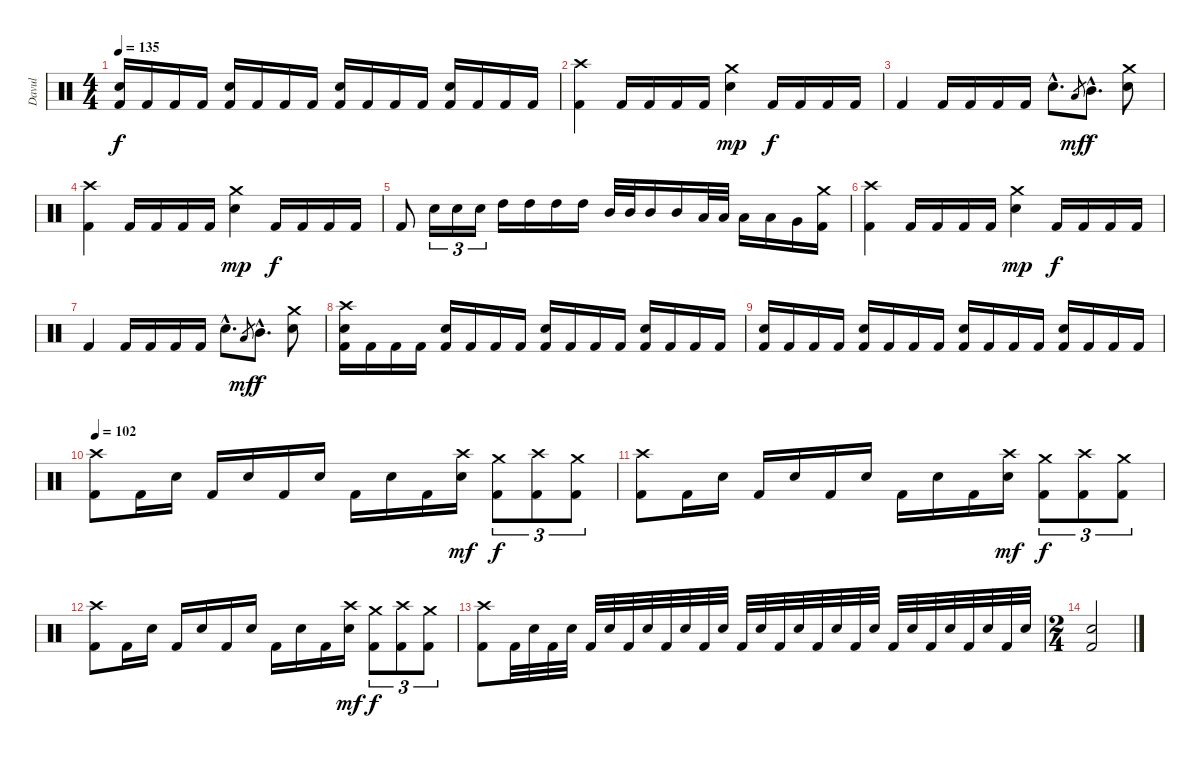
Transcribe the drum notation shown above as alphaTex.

\track ("Davul" "Davul") {instrument percussion}
\staff {score}
\articulation defaults
\ts (4 4)
\tempo 135
\clef neutral
\ks c
("Electric Snare (hit)" "Kick (hit) 2").16{dy f} "Kick (hit) 2".16 "Kick (hit) 2".16 "Kick (hit) 2".16 ("Electric Snare (hit)" "Kick (hit) 2").16 "Kick (hit) 2".16 "Kick (hit) 2".16 "Kick (hit) 2".16 ("Electric Snare (hit)" "Kick (hit) 2").16 "Kick (hit) 2".16 "Kick (hit) 2".16 "Kick (hit) 2".16 ("Electric Snare (hit)" "Kick (hit) 2").16 "Kick (hit) 2".16 "Kick (hit) 2".16 "Kick (hit) 2".16 |
("Crash high (hit)" "Kick (hit) 2").4 "Kick (hit) 2".16 "Kick (hit) 2".16 "Kick (hit) 2".16 "Kick (hit) 2".16 ("Crash medium (hit)" "Electric Snare (hit)").4{dy mp} "Kick (hit) 2".16{dy f} "Kick (hit) 2".16 "Kick (hit) 2".16 "Kick (hit) 2".16 |
"Kick (hit) 2".4 "Kick (hit) 2".16 "Kick (hit) 2".16 "Kick (hit) 2".16 "Kick (hit) 2".16 "Electric Snare (hit)"{hac}.8{d} "Low Tom (hit)".8{gr dy mf} "Mid Tom (hit)"{hac}.8{d dy f} ("Crash medium (hit)" "Electric Snare (hit)").8 |
("Crash high (hit)" "Kick (hit) 2").4 "Kick (hit) 2".16 "Kick (hit) 2".16 "Kick (hit) 2".16 "Kick (hit) 2".16 ("Crash medium (hit)" "Electric Snare (hit)").4{dy mp} "Kick (hit) 2".16{dy f} "Kick (hit) 2".16 "Kick (hit) 2".16 "Kick (hit) 2".16 |
"Kick (hit) 2".8 "Electric Snare (hit)".16{tu (3 2)} "Electric Snare (hit)".16{tu (3 2)} "Electric Snare (hit)".16{tu (3 2)} "High Tom (hit)".16 "High Tom (hit)".16 "High Tom (hit)".16 "High Tom (hit)".16 "Mid Tom (hit)".32 "Mid Tom (hit)".32 "Mid Tom (hit)".16 "Mid Tom (hit)".16 "Low Tom (hit)".32 "Low Tom (hit)".32 "Low Tom (hit)".16 "Low Tom (hit)".16 "Very Low Tom (hit)".16 ("Crash medium (hit)" "Kick (hit) 2").16 |
("Crash high (hit)" "Kick (hit) 2").4 "Kick (hit) 2".16 "Kick (hit) 2".16 "Kick (hit) 2".16 "Kick (hit) 2".16 ("Crash medium (hit)" "Electric Snare (hit)").4{dy mp} "Kick (hit) 2".16{dy f} "Kick (hit) 2".16 "Kick (hit) 2".16 "Kick (hit) 2".16 |
"Kick (hit) 2".4 "Kick (hit) 2".16 "Kick (hit) 2".16 "Kick (hit) 2".16 "Kick (hit) 2".16 "Electric Snare (hit)"{hac}.8{d} "Low Tom (hit)".8{gr dy mf} "Mid Tom (hit)"{hac}.8{d dy f} ("Crash medium (hit)" "Electric Snare (hit)").8 |
("Crash high (hit)" "Electric Snare (hit)" "Kick (hit) 2").16 "Kick (hit) 2".16 "Kick (hit) 2".16 "Kick (hit) 2".16 ("Electric Snare (hit)" "Kick (hit) 2").16 "Kick (hit) 2".16 "Kick (hit) 2".16 "Kick (hit) 2".16 ("Electric Snare (hit)" "Kick (hit) 2").16 "Kick (hit) 2".16 "Kick (hit) 2".16 "Kick (hit) 2".16 ("Electric Snare (hit)" "Kick (hit) 2").16 "Kick (hit) 2".16 "Kick (hit) 2".16 "Kick (hit) 2".16 |
("Electric Snare (hit)" "Kick (hit) 2").16 "Kick (hit) 2".16 "Kick (hit) 2".16 "Kick (hit) 2".16 ("Electric Snare (hit)" "Kick (hit) 2").16 "Kick (hit) 2".16 "Kick (hit) 2".16 "Kick (hit) 2".16 ("Electric Snare (hit)" "Kick (hit) 2").16 "Kick (hit) 2".16 "Kick (hit) 2".16 "Kick (hit) 2".16 ("Electric Snare (hit)" "Kick (hit) 2").16 "Kick (hit) 2".16 "Kick (hit) 2".16 "Kick (hit) 2".16 |
\tempo 102
("Crash high (hit)" "Kick (hit) 2").8 "Kick (hit) 2".16 "Electric Snare (hit)".16 "Kick (hit) 2".16 "Electric Snare (hit)".16 "Kick (hit) 2".16 "Electric Snare (hit)".16 "Kick (hit) 2".16 "Electric Snare (hit)".16 "Kick (hit) 2".16 ("Crash high (hit)" "Electric Snare (hit)").16{dy mf} ("Crash medium (hit)" "Kick (hit) 2").8{tu (3 2) dy f} ("Crash high (hit)" "Kick (hit) 2").8{tu (3 2)} ("Crash medium (hit)" "Kick (hit) 2").8{tu (3 2)} |
("Crash high (hit)" "Kick (hit) 2").8 "Kick (hit) 2".16 "Electric Snare (hit)".16 "Kick (hit) 2".16 "Electric Snare (hit)".16 "Kick (hit) 2".16 "Electric Snare (hit)".16 "Kick (hit) 2".16 "Electric Snare (hit)".16 "Kick (hit) 2".16 ("Crash high (hit)" "Electric Snare (hit)").16{dy mf} ("Crash medium (hit)" "Kick (hit) 2").8{tu (3 2) dy f} ("Crash high (hit)" "Kick (hit) 2").8{tu (3 2)} ("Crash medium (hit)" "Kick (hit) 2").8{tu (3 2)} |
("Crash high (hit)" "Kick (hit) 2").8 "Kick (hit) 2".16 "Electric Snare (hit)".16 "Kick (hit) 2".16 "Electric Snare (hit)".16 "Kick (hit) 2".16 "Electric Snare (hit)".16 "Kick (hit) 2".16 "Electric Snare (hit)".16 "Kick (hit) 2".16 ("Crash high (hit)" "Electric Snare (hit)").16{dy mf} ("Crash medium (hit)" "Kick (hit) 2").8{tu (3 2) dy f} ("Crash high (hit)" "Kick (hit) 2").8{tu (3 2)} ("Crash medium (hit)" "Kick (hit) 2").8{tu (3 2)} |
("Crash high (hit)" "Kick (hit) 2").8 "Kick (hit) 2".32 "Electric Snare (hit)".32 "Kick (hit) 2".32 "Electric Snare (hit)".32 "Kick (hit) 2".32 "Electric Snare (hit)".32 "Kick (hit) 2".32 "Electric Snare (hit)".32 "Kick (hit) 2".32 "Electric Snare (hit)".32 "Kick (hit) 2".32 "Electric Snare (hit)".32 "Kick (hit) 2".32 "Electric Snare (hit)".32 "Kick (hit) 2".32 "Electric Snare (hit)".32 "Kick (hit) 2".32 "Electric Snare (hit)".32 "Kick (hit) 2".32 "Electric Snare (hit)".32 "Kick (hit) 2".32 "Electric Snare (hit)".32 "Kick (hit) 2".32 "Electric Snare (hit)".32 "Kick (hit) 2".32 "Electric Snare (hit)".32 "Kick (hit) 2".32 "Electric Snare (hit)".32 |
\ts (2 4)
("Electric Snare (hit)" "Kick (hit) 2").2
